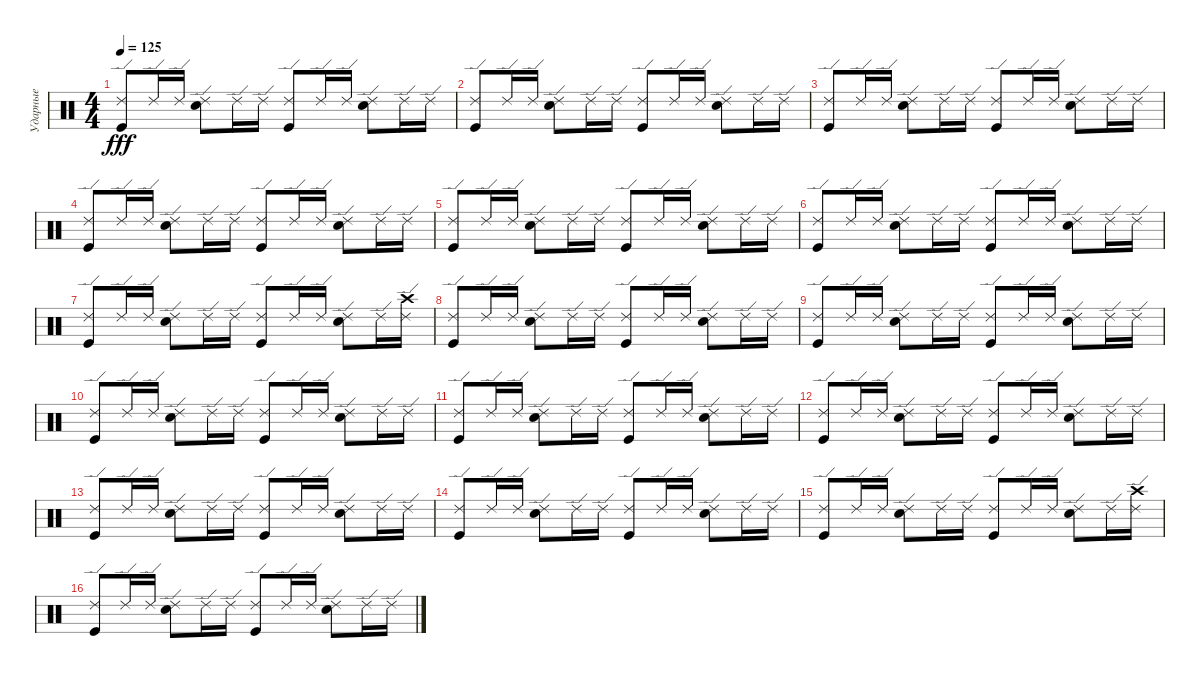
\track ("Ударные" "Ударные") {instrument percussion}
\staff {score}
\articulation defaults
\ts (4 4)
\tempo 125
\clef neutral
\ks c
("Ride (edge) 2" "Kick (hit)").8{dy fff} "Ride (edge) 2".16 "Ride (edge) 2".16 ("Ride (edge) 2" "Snare (hit) 2").8 "Ride (edge) 2".16 "Ride (edge) 2".16 ("Ride (edge) 2" "Kick (hit)").8 "Ride (edge) 2".16 "Ride (edge) 2".16 ("Ride (edge) 2" "Snare (hit) 2").8 "Ride (edge) 2".16 "Ride (edge) 2".16 |
("Ride (edge) 2" "Kick (hit)").8 "Ride (edge) 2".16 "Ride (edge) 2".16 ("Ride (edge) 2" "Snare (hit) 2").8 "Ride (edge) 2".16 "Ride (edge) 2".16 ("Ride (edge) 2" "Kick (hit)").8 "Ride (edge) 2".16 "Ride (edge) 2".16 ("Ride (edge) 2" "Snare (hit) 2").8 "Ride (edge) 2".16 "Ride (edge) 2".16 |
("Ride (edge) 2" "Kick (hit)").8 "Ride (edge) 2".16 "Ride (edge) 2".16 ("Ride (edge) 2" "Snare (hit) 2").8 "Ride (edge) 2".16 "Ride (edge) 2".16 ("Ride (edge) 2" "Kick (hit)").8 "Ride (edge) 2".16 "Ride (edge) 2".16 ("Ride (edge) 2" "Snare (hit) 2").8 "Ride (edge) 2".16 "Ride (edge) 2".16 |
("Ride (edge) 2" "Kick (hit)").8 "Ride (edge) 2".16 "Ride (edge) 2".16 ("Ride (edge) 2" "Snare (hit) 2").8 "Ride (edge) 2".16 "Ride (edge) 2".16 ("Ride (edge) 2" "Kick (hit)").8 "Ride (edge) 2".16 "Ride (edge) 2".16 ("Ride (edge) 2" "Snare (hit) 2").8 "Ride (edge) 2".16 "Ride (edge) 2".16 |
("Ride (edge) 2" "Kick (hit)").8 "Ride (edge) 2".16 "Ride (edge) 2".16 ("Ride (edge) 2" "Snare (hit) 2").8 "Ride (edge) 2".16 "Ride (edge) 2".16 ("Ride (edge) 2" "Kick (hit)").8 "Ride (edge) 2".16 "Ride (edge) 2".16 ("Ride (edge) 2" "Snare (hit) 2").8 "Ride (edge) 2".16 "Ride (edge) 2".16 |
("Ride (edge) 2" "Kick (hit)").8 "Ride (edge) 2".16 "Ride (edge) 2".16 ("Ride (edge) 2" "Snare (hit) 2").8 "Ride (edge) 2".16 "Ride (edge) 2".16 ("Ride (edge) 2" "Kick (hit)").8 "Ride (edge) 2".16 "Ride (edge) 2".16 ("Ride (edge) 2" "Snare (hit) 2").8 "Ride (edge) 2".16 "Ride (edge) 2".16 |
("Ride (edge) 2" "Kick (hit)").8 "Ride (edge) 2".16 "Ride (edge) 2".16 ("Ride (edge) 2" "Snare (hit) 2").8 "Ride (edge) 2".16 "Ride (edge) 2".16 ("Ride (edge) 2" "Kick (hit)").8 "Ride (edge) 2".16 "Ride (edge) 2".16 ("Ride (edge) 2" "Snare (hit) 2").8 "Ride (edge) 2".16 ("Ride (edge) 2" "Crash high (hit)").16 |
("Ride (edge) 2" "Kick (hit)").8 "Ride (edge) 2".16 "Ride (edge) 2".16 ("Ride (edge) 2" "Snare (hit) 2").8 "Ride (edge) 2".16 "Ride (edge) 2".16 ("Ride (edge) 2" "Kick (hit)").8 "Ride (edge) 2".16 "Ride (edge) 2".16 ("Ride (edge) 2" "Snare (hit) 2").8 "Ride (edge) 2".16 "Ride (edge) 2".16 |
("Ride (edge) 2" "Kick (hit)").8 "Ride (edge) 2".16 "Ride (edge) 2".16 ("Ride (edge) 2" "Snare (hit) 2").8 "Ride (edge) 2".16 "Ride (edge) 2".16 ("Ride (edge) 2" "Kick (hit)").8 "Ride (edge) 2".16 "Ride (edge) 2".16 ("Ride (edge) 2" "Snare (hit) 2").8 "Ride (edge) 2".16 "Ride (edge) 2".16 |
("Ride (edge) 2" "Kick (hit)").8 "Ride (edge) 2".16 "Ride (edge) 2".16 ("Ride (edge) 2" "Snare (hit) 2").8 "Ride (edge) 2".16 "Ride (edge) 2".16 ("Ride (edge) 2" "Kick (hit)").8 "Ride (edge) 2".16 "Ride (edge) 2".16 ("Ride (edge) 2" "Snare (hit) 2").8 "Ride (edge) 2".16 "Ride (edge) 2".16 |
("Ride (edge) 2" "Kick (hit)").8 "Ride (edge) 2".16 "Ride (edge) 2".16 ("Ride (edge) 2" "Snare (hit) 2").8 "Ride (edge) 2".16 "Ride (edge) 2".16 ("Ride (edge) 2" "Kick (hit)").8 "Ride (edge) 2".16 "Ride (edge) 2".16 ("Ride (edge) 2" "Snare (hit) 2").8 "Ride (edge) 2".16 "Ride (edge) 2".16 |
("Ride (edge) 2" "Kick (hit)").8 "Ride (edge) 2".16 "Ride (edge) 2".16 ("Ride (edge) 2" "Snare (hit) 2").8 "Ride (edge) 2".16 "Ride (edge) 2".16 ("Ride (edge) 2" "Kick (hit)").8 "Ride (edge) 2".16 "Ride (edge) 2".16 ("Ride (edge) 2" "Snare (hit) 2").8 "Ride (edge) 2".16 "Ride (edge) 2".16 |
("Ride (edge) 2" "Kick (hit)").8 "Ride (edge) 2".16 "Ride (edge) 2".16 ("Ride (edge) 2" "Snare (hit) 2").8 "Ride (edge) 2".16 "Ride (edge) 2".16 ("Ride (edge) 2" "Kick (hit)").8 "Ride (edge) 2".16 "Ride (edge) 2".16 ("Ride (edge) 2" "Snare (hit) 2").8 "Ride (edge) 2".16 "Ride (edge) 2".16 |
("Ride (edge) 2" "Kick (hit)").8 "Ride (edge) 2".16 "Ride (edge) 2".16 ("Ride (edge) 2" "Snare (hit) 2").8 "Ride (edge) 2".16 "Ride (edge) 2".16 ("Ride (edge) 2" "Kick (hit)").8 "Ride (edge) 2".16 "Ride (edge) 2".16 ("Ride (edge) 2" "Snare (hit) 2").8 "Ride (edge) 2".16 "Ride (edge) 2".16 |
("Ride (edge) 2" "Kick (hit)").8 "Ride (edge) 2".16 "Ride (edge) 2".16 ("Ride (edge) 2" "Snare (hit) 2").8 "Ride (edge) 2".16 "Ride (edge) 2".16 ("Ride (edge) 2" "Kick (hit)").8 "Ride (edge) 2".16 "Ride (edge) 2".16 ("Ride (edge) 2" "Snare (hit) 2").8 "Ride (edge) 2".16 ("Ride (edge) 2" "Crash high (hit)").16 |
("Ride (edge) 2" "Kick (hit)").8 "Ride (edge) 2".16 "Ride (edge) 2".16 ("Ride (edge) 2" "Snare (hit) 2").8 "Ride (edge) 2".16 "Ride (edge) 2".16 ("Ride (edge) 2" "Kick (hit)").8 "Ride (edge) 2".16 "Ride (edge) 2".16 ("Ride (edge) 2" "Snare (hit) 2").8 "Ride (edge) 2".16 "Ride (edge) 2".16
